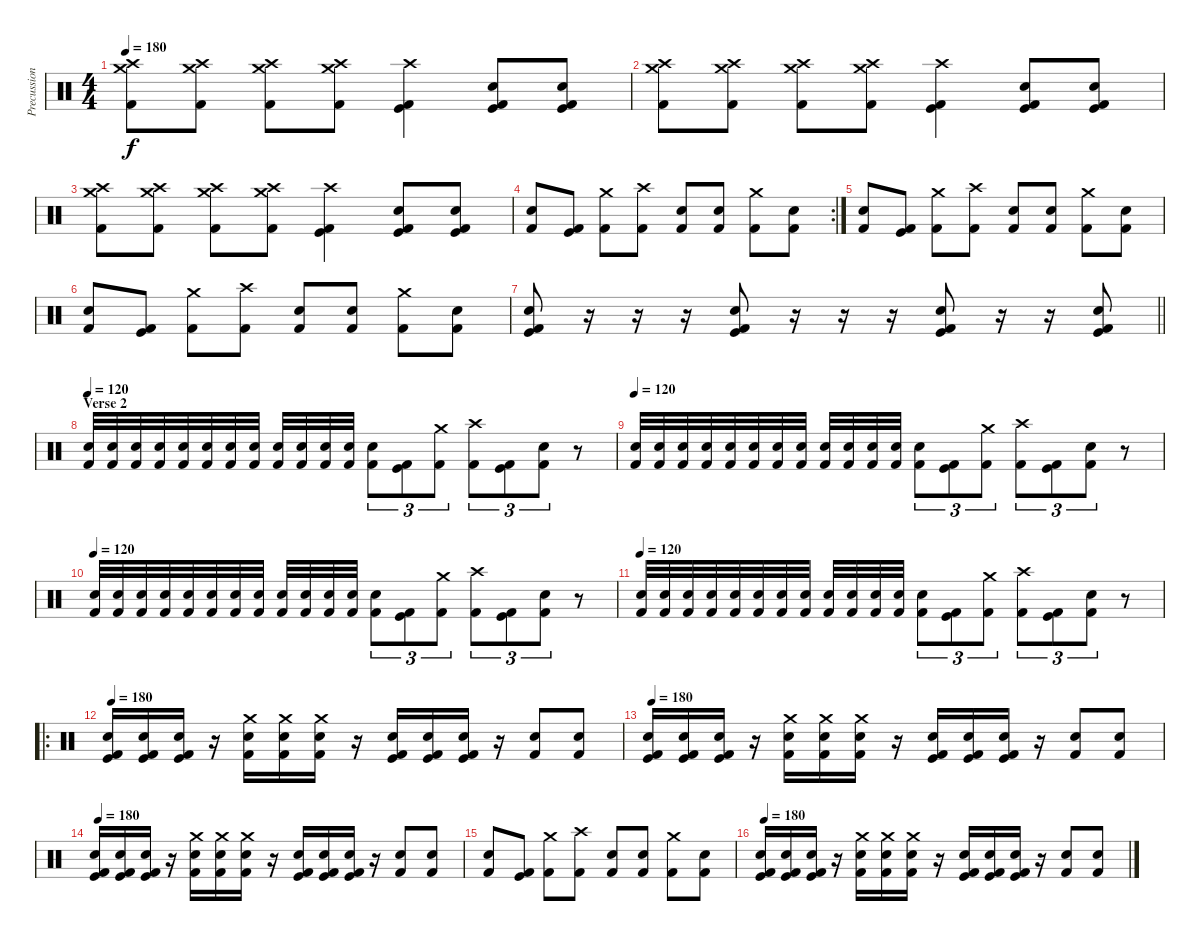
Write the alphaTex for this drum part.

\track ("Precussion" "Precussion") {instrument percussion}
\staff {score}
\articulation defaults
\ts (4 4)
\tempo 180
\clef neutral
\ks c
("Crash medium (hit)" "Crash high (hit)" "Kick (hit) 2").8{dy f} ("Crash medium (hit)" "Crash high (hit)" "Kick (hit) 2").8 ("Crash medium (hit)" "Crash high (hit)" "Kick (hit) 2").8 ("Crash medium (hit)" "Crash high (hit)" "Kick (hit) 2").8 ("Kick (hit)" "Crash high (hit)" "Kick (hit) 2").4 ("Electric Snare (hit)" "Kick (hit)" "Kick (hit) 2").8 ("Electric Snare (hit)" "Kick (hit)" "Kick (hit) 2").8 |
("Crash medium (hit)" "Crash high (hit)" "Kick (hit) 2").8 ("Crash medium (hit)" "Crash high (hit)" "Kick (hit) 2").8 ("Crash medium (hit)" "Crash high (hit)" "Kick (hit) 2").8 ("Crash medium (hit)" "Crash high (hit)" "Kick (hit) 2").8 ("Kick (hit)" "Crash high (hit)" "Kick (hit) 2").4 ("Electric Snare (hit)" "Kick (hit)" "Kick (hit) 2").8 ("Electric Snare (hit)" "Kick (hit)" "Kick (hit) 2").8 |
("Crash medium (hit)" "Crash high (hit)" "Kick (hit) 2").8 ("Crash medium (hit)" "Crash high (hit)" "Kick (hit) 2").8 ("Crash medium (hit)" "Crash high (hit)" "Kick (hit) 2").8 ("Crash medium (hit)" "Crash high (hit)" "Kick (hit) 2").8 ("Kick (hit)" "Crash high (hit)" "Kick (hit) 2").4 ("Electric Snare (hit)" "Kick (hit)" "Kick (hit) 2").8 ("Electric Snare (hit)" "Kick (hit)" "Kick (hit) 2").8 |
\rc 2
("Electric Snare (hit)" "Kick (hit) 2").8 ("Kick (hit)" "Kick (hit) 2").8 ("Crash medium (hit)" "Kick (hit) 2").8 ("Crash high (hit)" "Kick (hit) 2").8 ("Snare (hit) 2" "Kick (hit) 2").8 ("Electric Snare (hit)" "Kick (hit) 2").8 ("Crash medium (hit)" "Kick (hit) 2").8 ("Snare (hit) 2" "Kick (hit) 2").8 |
("Electric Snare (hit)" "Kick (hit) 2").8 ("Kick (hit)" "Kick (hit) 2").8 ("Crash medium (hit)" "Kick (hit) 2").8 ("Crash high (hit)" "Kick (hit) 2").8 ("Snare (hit) 2" "Kick (hit) 2").8 ("Electric Snare (hit)" "Kick (hit) 2").8 ("Crash medium (hit)" "Kick (hit) 2").8 ("Snare (hit) 2" "Kick (hit) 2").8 |
("Electric Snare (hit)" "Kick (hit) 2").8 ("Kick (hit)" "Kick (hit) 2").8 ("Crash medium (hit)" "Kick (hit) 2").8 ("Crash high (hit)" "Kick (hit) 2").8 ("Snare (hit) 2" "Kick (hit) 2").8 ("Electric Snare (hit)" "Kick (hit) 2").8 ("Crash medium (hit)" "Kick (hit) 2").8 ("Snare (hit) 2" "Kick (hit) 2").8 |
\barLineRight lightlight
("Kick (hit)" "Snare (hit) 2" "Kick (hit) 2").8 r.16 r.16 r.16 ("Kick (hit)" "Snare (hit) 2" "Kick (hit) 2").8 r.16 r.16 r.16 ("Kick (hit)" "Snare (hit) 2" "Kick (hit) 2").8 r.16 r.16 ("Kick (hit)" "Snare (hit) 2" "Kick (hit) 2").8 |
\section ("" "Verse 2")
\tempo 120
("Snare (hit) 2" "Kick (hit) 2").32 ("Snare (hit) 2" "Kick (hit) 2").32 ("Snare (hit) 2" "Kick (hit) 2").32 ("Snare (hit) 2" "Kick (hit) 2").32 ("Snare (hit) 2" "Kick (hit) 2").32 ("Snare (hit) 2" "Kick (hit) 2").32 ("Snare (hit) 2" "Kick (hit) 2").32 ("Snare (hit) 2" "Kick (hit) 2").32 ("Snare (hit) 2" "Kick (hit) 2").32 ("Snare (hit) 2" "Kick (hit) 2").32 ("Snare (hit) 2" "Kick (hit) 2").32 ("Snare (hit) 2" "Kick (hit) 2").32 ("Electric Snare (hit)" "Kick (hit) 2").8{tu (3 2)} ("Kick (hit)" "Kick (hit) 2").8{tu (3 2)} ("Crash medium (hit)" "Kick (hit) 2").8{tu (3 2)} ("Crash high (hit)" "Kick (hit) 2").8{tu (3 2)} ("Kick (hit)" "Kick (hit) 2").8{tu (3 2)} ("Electric Snare (hit)" "Kick (hit) 2").8{tu (3 2)} r.8 |
\tempo 120
("Snare (hit) 2" "Kick (hit) 2").32 ("Snare (hit) 2" "Kick (hit) 2").32 ("Snare (hit) 2" "Kick (hit) 2").32 ("Snare (hit) 2" "Kick (hit) 2").32 ("Snare (hit) 2" "Kick (hit) 2").32 ("Snare (hit) 2" "Kick (hit) 2").32 ("Snare (hit) 2" "Kick (hit) 2").32 ("Snare (hit) 2" "Kick (hit) 2").32 ("Snare (hit) 2" "Kick (hit) 2").32 ("Snare (hit) 2" "Kick (hit) 2").32 ("Snare (hit) 2" "Kick (hit) 2").32 ("Snare (hit) 2" "Kick (hit) 2").32 ("Electric Snare (hit)" "Kick (hit) 2").8{tu (3 2)} ("Kick (hit)" "Kick (hit) 2").8{tu (3 2)} ("Crash medium (hit)" "Kick (hit) 2").8{tu (3 2)} ("Crash high (hit)" "Kick (hit) 2").8{tu (3 2)} ("Kick (hit)" "Kick (hit) 2").8{tu (3 2)} ("Electric Snare (hit)" "Kick (hit) 2").8{tu (3 2)} r.8 |
\tempo 120
("Snare (hit) 2" "Kick (hit) 2").32 ("Snare (hit) 2" "Kick (hit) 2").32 ("Snare (hit) 2" "Kick (hit) 2").32 ("Snare (hit) 2" "Kick (hit) 2").32 ("Snare (hit) 2" "Kick (hit) 2").32 ("Snare (hit) 2" "Kick (hit) 2").32 ("Snare (hit) 2" "Kick (hit) 2").32 ("Snare (hit) 2" "Kick (hit) 2").32 ("Snare (hit) 2" "Kick (hit) 2").32 ("Snare (hit) 2" "Kick (hit) 2").32 ("Snare (hit) 2" "Kick (hit) 2").32 ("Snare (hit) 2" "Kick (hit) 2").32 ("Electric Snare (hit)" "Kick (hit) 2").8{tu (3 2)} ("Kick (hit)" "Kick (hit) 2").8{tu (3 2)} ("Crash medium (hit)" "Kick (hit) 2").8{tu (3 2)} ("Crash high (hit)" "Kick (hit) 2").8{tu (3 2)} ("Kick (hit)" "Kick (hit) 2").8{tu (3 2)} ("Electric Snare (hit)" "Kick (hit) 2").8{tu (3 2)} r.8 |
\tempo 120
("Snare (hit) 2" "Kick (hit) 2").32 ("Snare (hit) 2" "Kick (hit) 2").32 ("Snare (hit) 2" "Kick (hit) 2").32 ("Snare (hit) 2" "Kick (hit) 2").32 ("Snare (hit) 2" "Kick (hit) 2").32 ("Snare (hit) 2" "Kick (hit) 2").32 ("Snare (hit) 2" "Kick (hit) 2").32 ("Snare (hit) 2" "Kick (hit) 2").32 ("Snare (hit) 2" "Kick (hit) 2").32 ("Snare (hit) 2" "Kick (hit) 2").32 ("Snare (hit) 2" "Kick (hit) 2").32 ("Snare (hit) 2" "Kick (hit) 2").32 ("Electric Snare (hit)" "Kick (hit) 2").8{tu (3 2)} ("Kick (hit)" "Kick (hit) 2").8{tu (3 2)} ("Crash medium (hit)" "Kick (hit) 2").8{tu (3 2)} ("Crash high (hit)" "Kick (hit) 2").8{tu (3 2)} ("Kick (hit)" "Kick (hit) 2").8{tu (3 2)} ("Electric Snare (hit)" "Kick (hit) 2").8{tu (3 2)} r.8 |
\ro
\tempo 180
("Kick (hit)" "Electric Snare (hit)" "Kick (hit) 2").16 ("Kick (hit)" "Electric Snare (hit)" "Kick (hit) 2").16 ("Kick (hit)" "Electric Snare (hit)" "Kick (hit) 2").16 r.16 ("Crash medium (hit)" "Electric Snare (hit)" "Kick (hit) 2").16 ("Crash medium (hit)" "Electric Snare (hit)" "Kick (hit) 2").16 ("Crash medium (hit)" "Electric Snare (hit)" "Kick (hit) 2").16 r.16 ("Kick (hit)" "Electric Snare (hit)" "Kick (hit) 2").16 ("Kick (hit)" "Electric Snare (hit)" "Kick (hit) 2").16 ("Kick (hit)" "Electric Snare (hit)" "Kick (hit) 2").16 r.16 ("Electric Snare (hit)" "Kick (hit) 2").8 ("Snare (hit) 2" "Kick (hit) 2").8 |
\tempo 180
("Kick (hit)" "Electric Snare (hit)" "Kick (hit) 2").16 ("Kick (hit)" "Electric Snare (hit)" "Kick (hit) 2").16 ("Kick (hit)" "Electric Snare (hit)" "Kick (hit) 2").16 r.16 ("Crash medium (hit)" "Electric Snare (hit)" "Kick (hit) 2").16 ("Crash medium (hit)" "Electric Snare (hit)" "Kick (hit) 2").16 ("Crash medium (hit)" "Electric Snare (hit)" "Kick (hit) 2").16 r.16 ("Kick (hit)" "Electric Snare (hit)" "Kick (hit) 2").16 ("Kick (hit)" "Electric Snare (hit)" "Kick (hit) 2").16 ("Kick (hit)" "Electric Snare (hit)" "Kick (hit) 2").16 r.16 ("Snare (hit) 2" "Kick (hit) 2").8 ("Electric Snare (hit)" "Kick (hit) 2").8 |
\tempo 180
("Kick (hit)" "Electric Snare (hit)" "Kick (hit) 2").16 ("Kick (hit)" "Electric Snare (hit)" "Kick (hit) 2").16 ("Kick (hit)" "Electric Snare (hit)" "Kick (hit) 2").16 r.16 ("Crash medium (hit)" "Electric Snare (hit)" "Kick (hit) 2").16 ("Crash medium (hit)" "Electric Snare (hit)" "Kick (hit) 2").16 ("Crash medium (hit)" "Electric Snare (hit)" "Kick (hit) 2").16 r.16 ("Kick (hit)" "Electric Snare (hit)" "Kick (hit) 2").16 ("Kick (hit)" "Electric Snare (hit)" "Kick (hit) 2").16 ("Kick (hit)" "Electric Snare (hit)" "Kick (hit) 2").16 r.16 ("Electric Snare (hit)" "Kick (hit) 2").8 ("Snare (hit) 2" "Kick (hit) 2").8 |
("Electric Snare (hit)" "Kick (hit) 2").8 ("Kick (hit)" "Kick (hit) 2").8 ("Crash medium (hit)" "Kick (hit) 2").8 ("Crash high (hit)" "Kick (hit) 2").8 ("Snare (hit) 2" "Kick (hit) 2").8 ("Electric Snare (hit)" "Kick (hit) 2").8 ("Crash medium (hit)" "Kick (hit) 2").8 ("Snare (hit) 2" "Kick (hit) 2").8 |
\tempo 180
("Kick (hit)" "Electric Snare (hit)" "Kick (hit) 2").16 ("Kick (hit)" "Electric Snare (hit)" "Kick (hit) 2").16 ("Kick (hit)" "Electric Snare (hit)" "Kick (hit) 2").16 r.16 ("Crash medium (hit)" "Electric Snare (hit)" "Kick (hit) 2").16 ("Crash medium (hit)" "Electric Snare (hit)" "Kick (hit) 2").16 ("Crash medium (hit)" "Electric Snare (hit)" "Kick (hit) 2").16 r.16 ("Kick (hit)" "Electric Snare (hit)" "Kick (hit) 2").16 ("Kick (hit)" "Electric Snare (hit)" "Kick (hit) 2").16 ("Kick (hit)" "Electric Snare (hit)" "Kick (hit) 2").16 r.16 ("Electric Snare (hit)" "Kick (hit) 2").8 ("Snare (hit) 2" "Kick (hit) 2").8
